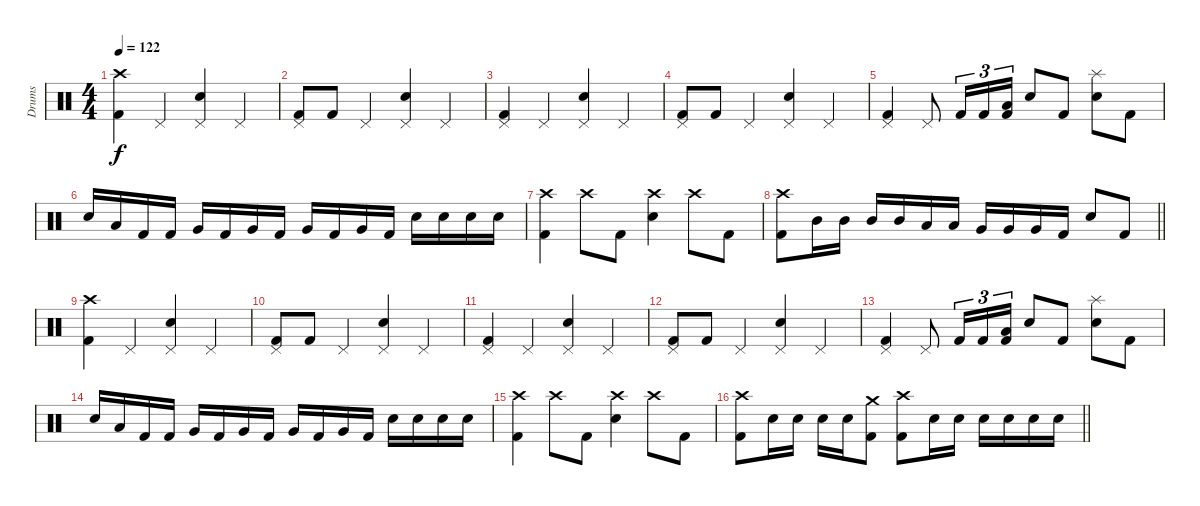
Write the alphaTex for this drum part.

\track ("Drums" "Drums") {instrument percussion}
\staff {score}
\articulation defaults
\ts (4 4)
\tempo 122
\clef neutral
\ks c
("Crash high (hit)" "Kick (hit) 2").4{dy f} "Pedal Hi-Hat (hit)".4 ("Pedal Hi-Hat (hit)" "Electric Snare (hit)").4 "Pedal Hi-Hat (hit)".4 |
("Pedal Hi-Hat (hit)" "Kick (hit) 2").8 "Kick (hit) 2".8 "Pedal Hi-Hat (hit)".4 ("Pedal Hi-Hat (hit)" "Electric Snare (hit)").4 "Pedal Hi-Hat (hit)".4 |
("Pedal Hi-Hat (hit)" "Kick (hit) 2").4 "Pedal Hi-Hat (hit)".4 ("Pedal Hi-Hat (hit)" "Electric Snare (hit)").4 "Pedal Hi-Hat (hit)".4 |
("Pedal Hi-Hat (hit)" "Kick (hit) 2").8 "Kick (hit) 2".8 "Pedal Hi-Hat (hit)".4 ("Pedal Hi-Hat (hit)" "Electric Snare (hit)").4 "Pedal Hi-Hat (hit)".4 |
("Pedal Hi-Hat (hit)" "Kick (hit) 2").4 "Pedal Hi-Hat (hit)".8 "Kick (hit) 2".16{tu (3 2)} "Kick (hit) 2".16{tu (3 2)} ("Low Tom (hit)" "Kick (hit) 2").16{tu (3 2)} "Electric Snare (hit)".8 "Kick (hit) 2".8 ("Splash (hit)" "Electric Snare (hit)").8 "Kick (hit) 2".8 |
"Electric Snare (hit)".16 "Low Tom (hit)".16 "Kick (hit) 2".16 "Kick (hit) 2".16 "Very Low Tom (hit)".16 "Kick (hit) 2".16 "Very Low Tom (hit)".16 "Kick (hit) 2".16 "Very Low Tom (hit)".16 "Kick (hit) 2".16 "Very Low Tom (hit)".16 "Kick (hit) 2".16 "Electric Snare (hit)".16 "Electric Snare (hit)".16 "Electric Snare (hit)".16 "Electric Snare (hit)".16 |
("Crash high (hit)" "Kick (hit) 2").4 "Crash high (hit)".8 "Kick (hit) 2".8 ("Crash high (hit)" "Electric Snare (hit)").4 "Crash high (hit)".8 "Kick (hit) 2".8 |
\barLineRight lightlight
("Crash high (hit)" "Kick (hit) 2").8 "Mid Tom (hit)".16 "Mid Tom (hit)".16 "Mid Tom (hit)".16 "Mid Tom (hit)".16 "Low Tom (hit)".16 "Low Tom (hit)".16 "Very Low Tom (hit)".16 "Very Low Tom (hit)".16 "Very Low Tom (hit)".16 "Kick (hit) 2".16 "Electric Snare (hit)".8 "Kick (hit) 2".8 |
("Crash high (hit)" "Kick (hit) 2").4 "Pedal Hi-Hat (hit)".4 ("Pedal Hi-Hat (hit)" "Electric Snare (hit)").4 "Pedal Hi-Hat (hit)".4 |
("Pedal Hi-Hat (hit)" "Kick (hit) 2").8 "Kick (hit) 2".8 "Pedal Hi-Hat (hit)".4 ("Pedal Hi-Hat (hit)" "Electric Snare (hit)").4 "Pedal Hi-Hat (hit)".4 |
("Pedal Hi-Hat (hit)" "Kick (hit) 2").4 "Pedal Hi-Hat (hit)".4 ("Pedal Hi-Hat (hit)" "Electric Snare (hit)").4 "Pedal Hi-Hat (hit)".4 |
("Pedal Hi-Hat (hit)" "Kick (hit) 2").8 "Kick (hit) 2".8 "Pedal Hi-Hat (hit)".4 ("Pedal Hi-Hat (hit)" "Electric Snare (hit)").4 "Pedal Hi-Hat (hit)".4 |
("Pedal Hi-Hat (hit)" "Kick (hit) 2").4 "Pedal Hi-Hat (hit)".8 "Kick (hit) 2".16{tu (3 2)} "Kick (hit) 2".16{tu (3 2)} ("Low Tom (hit)" "Kick (hit) 2").16{tu (3 2)} "Electric Snare (hit)".8 "Kick (hit) 2".8 ("Splash (hit)" "Electric Snare (hit)").8 "Kick (hit) 2".8 |
"Electric Snare (hit)".16 "Low Tom (hit)".16 "Kick (hit) 2".16 "Kick (hit) 2".16 "Very Low Tom (hit)".16 "Kick (hit) 2".16 "Very Low Tom (hit)".16 "Kick (hit) 2".16 "Very Low Tom (hit)".16 "Kick (hit) 2".16 "Very Low Tom (hit)".16 "Kick (hit) 2".16 "Electric Snare (hit)".16 "Electric Snare (hit)".16 "Electric Snare (hit)".16 "Electric Snare (hit)".16 |
("Crash high (hit)" "Kick (hit) 2").4 "Crash high (hit)".8 "Kick (hit) 2".8 ("Crash high (hit)" "Electric Snare (hit)").4 "Crash high (hit)".8 "Kick (hit) 2".8 |
\barLineRight lightlight
("Crash high (hit)" "Kick (hit) 2").8 "Electric Snare (hit)".16 "Electric Snare (hit)".16 "Electric Snare (hit)".16 "Electric Snare (hit)".16 ("Crash medium (hit)" "Kick (hit) 2").8 ("Crash high (hit)" "Kick (hit) 2").8 "Electric Snare (hit)".16 "Electric Snare (hit)".16 "Electric Snare (hit)".16 "Electric Snare (hit)".16 "Electric Snare (hit)".16 "Electric Snare (hit)".16
